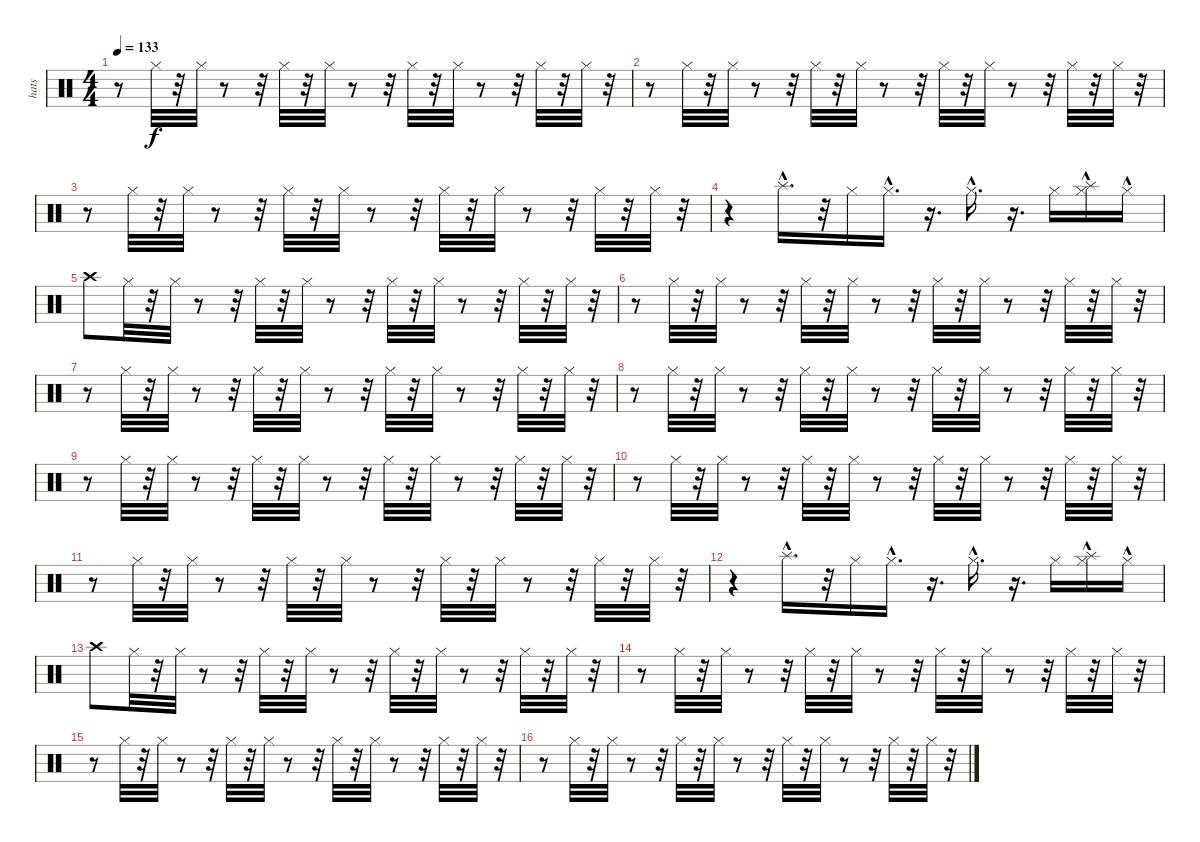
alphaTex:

\track ("hats" "hats") {instrument percussion}
\staff {score}
\articulation defaults
\ts (4 4)
\tempo 133
\clef neutral
\ks c
r.8{dy f} "Hi-Hat (closed)".32 r.32 "Hi-Hat (closed)".32 r.8 r.32 "Hi-Hat (closed)".32 r.32 "Hi-Hat (closed)".32 r.8 r.32 "Hi-Hat (closed)".32 r.32 "Hi-Hat (closed)".32 r.8 r.32 "Hi-Hat (closed)".32 r.32 "Hi-Hat (closed)".32 r.32 |
r.8 "Hi-Hat (closed)".32 r.32 "Hi-Hat (closed)".32 r.8 r.32 "Hi-Hat (closed)".32 r.32 "Hi-Hat (closed)".32 r.8 r.32 "Hi-Hat (closed)".32 r.32 "Hi-Hat (closed)".32 r.8 r.32 "Hi-Hat (closed)".32 r.32 "Hi-Hat (closed)".32 r.32 |
r.8 "Hi-Hat (closed)".32 r.32 "Hi-Hat (closed)".32 r.8 r.32 "Hi-Hat (closed)".32 r.32 "Hi-Hat (closed)".32 r.8 r.32 "Hi-Hat (closed)".32 r.32 "Hi-Hat (closed)".32 r.8 r.32 "Hi-Hat (closed)".32 r.32 "Hi-Hat (closed)".32 r.32 |
r.4 "Splash (hit)"{hac}.16{d} r.32 "Hi-Hat (closed)".16 "Hi-Hat (closed)"{hac}.16{d} r.16{d} "Hi-Hat (closed)"{hac}.16{d} r.16{d} "Hi-Hat (closed)".16 ("Hi-Hat (closed)" "Splash (hit)"{hac}).16 "Hi-Hat (closed)"{hac}.16 |
"Crash high (hit)".8 "Hi-Hat (closed)".32 r.32 "Hi-Hat (closed)".32 r.8 r.32 "Hi-Hat (closed)".32 r.32 "Hi-Hat (closed)".32 r.8 r.32 "Hi-Hat (closed)".32 r.32 "Hi-Hat (closed)".32 r.8 r.32 "Hi-Hat (closed)".32 r.32 "Hi-Hat (closed)".32 r.32 |
r.8 "Hi-Hat (closed)".32 r.32 "Hi-Hat (closed)".32 r.8 r.32 "Hi-Hat (closed)".32 r.32 "Hi-Hat (closed)".32 r.8 r.32 "Hi-Hat (closed)".32 r.32 "Hi-Hat (closed)".32 r.8 r.32 "Hi-Hat (closed)".32 r.32 "Hi-Hat (closed)".32 r.32 |
r.8 "Hi-Hat (closed)".32 r.32 "Hi-Hat (closed)".32 r.8 r.32 "Hi-Hat (closed)".32 r.32 "Hi-Hat (closed)".32 r.8 r.32 "Hi-Hat (closed)".32 r.32 "Hi-Hat (closed)".32 r.8 r.32 "Hi-Hat (closed)".32 r.32 "Hi-Hat (closed)".32 r.32 |
r.8 "Hi-Hat (closed)".32 r.32 "Hi-Hat (closed)".32 r.8 r.32 "Hi-Hat (closed)".32 r.32 "Hi-Hat (closed)".32 r.8 r.32 "Hi-Hat (closed)".32 r.32 "Hi-Hat (closed)".32 r.8 r.32 "Hi-Hat (closed)".32 r.32 "Hi-Hat (closed)".32 r.32 |
r.8 "Hi-Hat (closed)".32 r.32 "Hi-Hat (closed)".32 r.8 r.32 "Hi-Hat (closed)".32 r.32 "Hi-Hat (closed)".32 r.8 r.32 "Hi-Hat (closed)".32 r.32 "Hi-Hat (closed)".32 r.8 r.32 "Hi-Hat (closed)".32 r.32 "Hi-Hat (closed)".32 r.32 |
r.8 "Hi-Hat (closed)".32 r.32 "Hi-Hat (closed)".32 r.8 r.32 "Hi-Hat (closed)".32 r.32 "Hi-Hat (closed)".32 r.8 r.32 "Hi-Hat (closed)".32 r.32 "Hi-Hat (closed)".32 r.8 r.32 "Hi-Hat (closed)".32 r.32 "Hi-Hat (closed)".32 r.32 |
r.8 "Hi-Hat (closed)".32 r.32 "Hi-Hat (closed)".32 r.8 r.32 "Hi-Hat (closed)".32 r.32 "Hi-Hat (closed)".32 r.8 r.32 "Hi-Hat (closed)".32 r.32 "Hi-Hat (closed)".32 r.8 r.32 "Hi-Hat (closed)".32 r.32 "Hi-Hat (closed)".32 r.32 |
r.4 "Splash (hit)"{hac}.16{d} r.32 "Hi-Hat (closed)".16 "Hi-Hat (closed)"{hac}.16{d} r.16{d} "Hi-Hat (closed)"{hac}.16{d} r.16{d} "Hi-Hat (closed)".16 ("Hi-Hat (closed)" "Splash (hit)"{hac}).16 "Hi-Hat (closed)"{hac}.16 |
"Crash high (hit)".8 "Hi-Hat (closed)".32 r.32 "Hi-Hat (closed)".32 r.8 r.32 "Hi-Hat (closed)".32 r.32 "Hi-Hat (closed)".32 r.8 r.32 "Hi-Hat (closed)".32 r.32 "Hi-Hat (closed)".32 r.8 r.32 "Hi-Hat (closed)".32 r.32 "Hi-Hat (closed)".32 r.32 |
r.8 "Hi-Hat (closed)".32 r.32 "Hi-Hat (closed)".32 r.8 r.32 "Hi-Hat (closed)".32 r.32 "Hi-Hat (closed)".32 r.8 r.32 "Hi-Hat (closed)".32 r.32 "Hi-Hat (closed)".32 r.8 r.32 "Hi-Hat (closed)".32 r.32 "Hi-Hat (closed)".32 r.32 |
r.8 "Hi-Hat (closed)".32 r.32 "Hi-Hat (closed)".32 r.8 r.32 "Hi-Hat (closed)".32 r.32 "Hi-Hat (closed)".32 r.8 r.32 "Hi-Hat (closed)".32 r.32 "Hi-Hat (closed)".32 r.8 r.32 "Hi-Hat (closed)".32 r.32 "Hi-Hat (closed)".32 r.32 |
r.8 "Hi-Hat (closed)".32 r.32 "Hi-Hat (closed)".32 r.8 r.32 "Hi-Hat (closed)".32 r.32 "Hi-Hat (closed)".32 r.8 r.32 "Hi-Hat (closed)".32 r.32 "Hi-Hat (closed)".32 r.8 r.32 "Hi-Hat (closed)".32 r.32 "Hi-Hat (closed)".32 r.32
